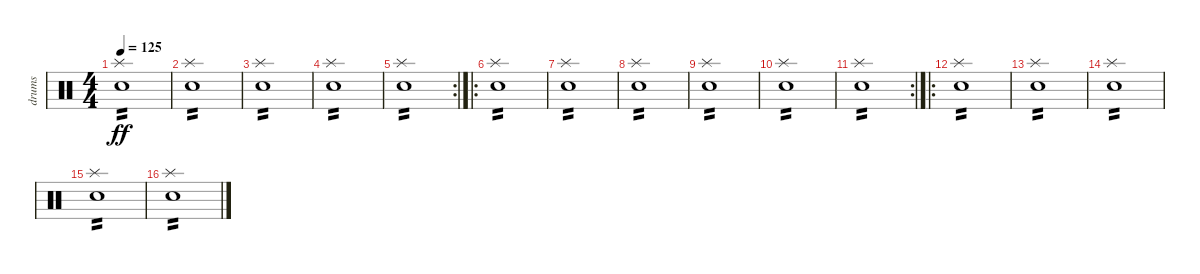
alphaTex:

\track ("drums" "drums") {instrument percussion}
\staff {score}
\articulation defaults
\ts (4 4)
\tempo 125
\clef neutral
\ks c
("Splash (hit)" "Electric Snare (hit)").1{tp 2 dy ff} |
("Splash (hit)" "Electric Snare (hit)").1{tp 2} |
("Splash (hit)" "Electric Snare (hit)").1{tp 2} |
("Splash (hit)" "Electric Snare (hit)").1{tp 2} |
\rc 2
("Splash (hit)" "Electric Snare (hit)").1{tp 2} |
\ro
("Splash (hit)" "Electric Snare (hit)").1{tp 2} |
("Splash (hit)" "Electric Snare (hit)").1{tp 2} |
("Splash (hit)" "Electric Snare (hit)").1{tp 2} |
("Splash (hit)" "Electric Snare (hit)").1{tp 2} |
("Splash (hit)" "Electric Snare (hit)").1{tp 2} |
\rc 2
("Splash (hit)" "Electric Snare (hit)").1{tp 2} |
\ro
("Splash (hit)" "Electric Snare (hit)").1{tp 2} |
("Splash (hit)" "Electric Snare (hit)").1{tp 2} |
("Splash (hit)" "Electric Snare (hit)").1{tp 2} |
("Splash (hit)" "Electric Snare (hit)").1{tp 2} |
("Splash (hit)" "Electric Snare (hit)").1{tp 2}
